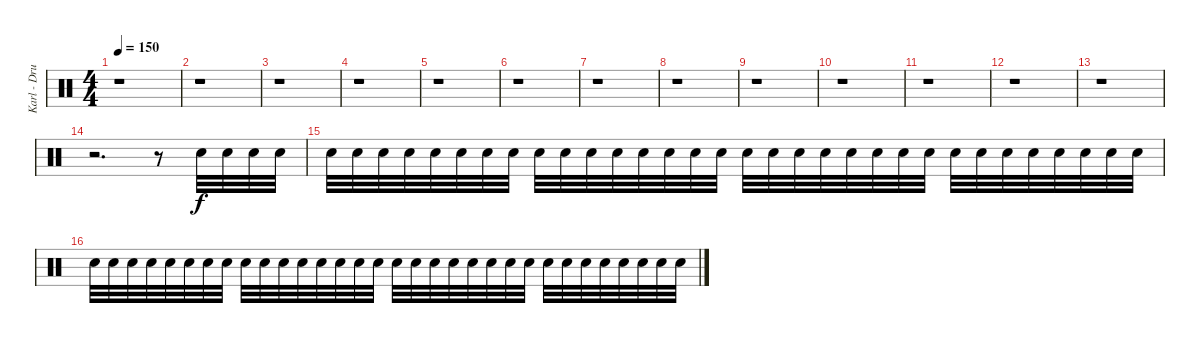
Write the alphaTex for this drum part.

\track ("Karl - Drums" "Karl - Dru") {instrument percussion}
\staff {score}
\articulation defaults
\ts (4 4)
\tempo 150
\clef neutral
\ks c
r.1{dy f} |
r.1 |
r.1 |
r.1 |
r.1 |
r.1 |
r.1 |
r.1 |
r.1 |
r.1 |
r.1 |
r.1 |
r.1 |
r.2{d} r.8 "Snare (hit) 2".32 "Snare (hit) 2".32 "Snare (hit) 2".32 "Snare (hit) 2".32 |
"Snare (hit) 2".32 "Snare (hit) 2".32 "Snare (hit) 2".32 "Snare (hit) 2".32 "Snare (hit) 2".32 "Snare (hit) 2".32 "Snare (hit) 2".32 "Snare (hit) 2".32 "Snare (hit) 2".32 "Snare (hit) 2".32 "Snare (hit) 2".32 "Snare (hit) 2".32 "Snare (hit) 2".32 "Snare (hit) 2".32 "Snare (hit) 2".32 "Snare (hit) 2".32 "Snare (hit) 2".32 "Snare (hit) 2".32 "Snare (hit) 2".32 "Snare (hit) 2".32 "Snare (hit) 2".32 "Snare (hit) 2".32 "Snare (hit) 2".32 "Snare (hit) 2".32 "Snare (hit) 2".32 "Snare (hit) 2".32 "Snare (hit) 2".32 "Snare (hit) 2".32 "Snare (hit) 2".32 "Snare (hit) 2".32 "Snare (hit) 2".32 "Snare (hit) 2".32 |
"Snare (hit) 2".32 "Snare (hit) 2".32 "Snare (hit) 2".32 "Snare (hit) 2".32 "Snare (hit) 2".32 "Snare (hit) 2".32 "Snare (hit) 2".32 "Snare (hit) 2".32 "Snare (hit) 2".32 "Snare (hit) 2".32 "Snare (hit) 2".32 "Snare (hit) 2".32 "Snare (hit) 2".32 "Snare (hit) 2".32 "Snare (hit) 2".32 "Snare (hit) 2".32 "Snare (hit) 2".32 "Snare (hit) 2".32 "Snare (hit) 2".32 "Snare (hit) 2".32 "Snare (hit) 2".32 "Snare (hit) 2".32 "Snare (hit) 2".32 "Snare (hit) 2".32 "Snare (hit) 2".32 "Snare (hit) 2".32 "Snare (hit) 2".32 "Snare (hit) 2".32 "Snare (hit) 2".32 "Snare (hit) 2".32 "Snare (hit) 2".32 "Snare (hit) 2".32
